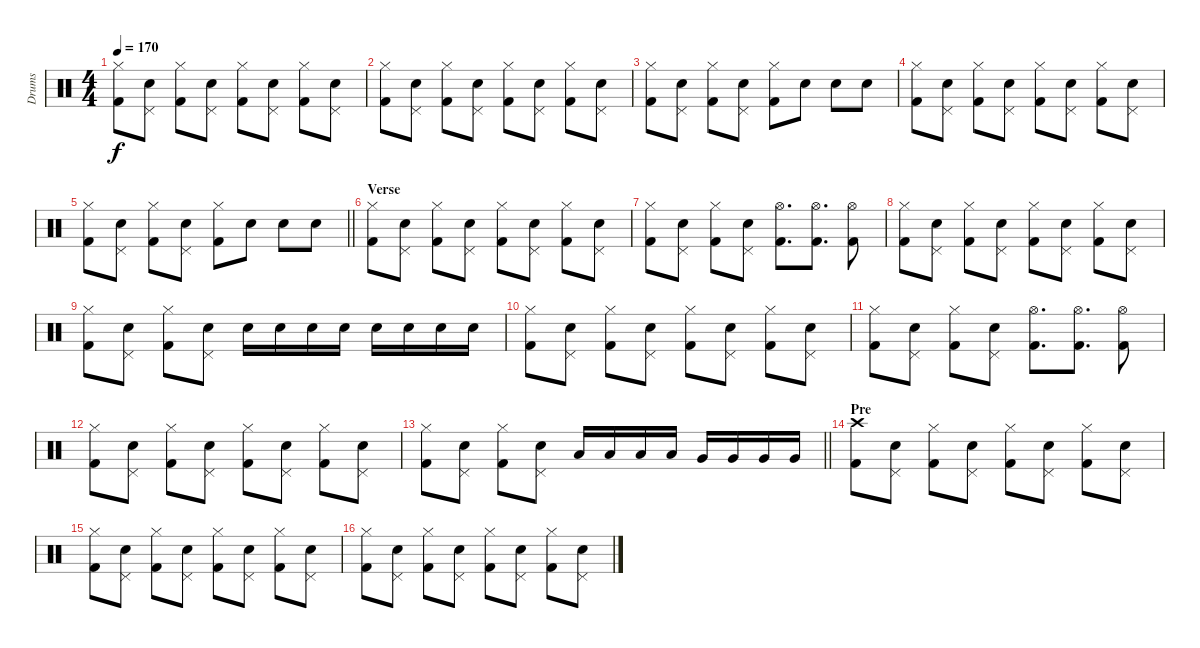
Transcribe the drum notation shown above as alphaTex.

\track ("Drums" "Drums") {instrument percussion}
\staff {score}
\articulation defaults
\ts (4 4)
\tempo 170
\clef neutral
\ks c
("Hi-Hat (closed)" "Kick (hit) 2").8{dy f} ("Pedal Hi-Hat (hit)" "Electric Snare (hit)").8 ("Hi-Hat (closed)" "Kick (hit) 2").8 ("Pedal Hi-Hat (hit)" "Electric Snare (hit)").8 ("Hi-Hat (closed)" "Kick (hit) 2").8 ("Pedal Hi-Hat (hit)" "Electric Snare (hit)").8 ("Hi-Hat (closed)" "Kick (hit) 2").8 ("Pedal Hi-Hat (hit)" "Electric Snare (hit)").8 |
("Hi-Hat (closed)" "Kick (hit) 2").8 ("Pedal Hi-Hat (hit)" "Electric Snare (hit)").8 ("Hi-Hat (closed)" "Kick (hit) 2").8 ("Pedal Hi-Hat (hit)" "Electric Snare (hit)").8 ("Hi-Hat (closed)" "Kick (hit) 2").8 ("Pedal Hi-Hat (hit)" "Electric Snare (hit)").8 ("Hi-Hat (closed)" "Kick (hit) 2").8 ("Pedal Hi-Hat (hit)" "Electric Snare (hit)").8 |
("Hi-Hat (closed)" "Kick (hit) 2").8 ("Pedal Hi-Hat (hit)" "Electric Snare (hit)").8 ("Hi-Hat (closed)" "Kick (hit) 2").8 ("Pedal Hi-Hat (hit)" "Electric Snare (hit)").8 ("Hi-Hat (closed)" "Kick (hit) 2").8 "Electric Snare (hit)".8 "Electric Snare (hit)".8 "Electric Snare (hit)".8 |
("Hi-Hat (closed)" "Kick (hit) 2").8 ("Pedal Hi-Hat (hit)" "Electric Snare (hit)").8 ("Hi-Hat (closed)" "Kick (hit) 2").8 ("Pedal Hi-Hat (hit)" "Electric Snare (hit)").8 ("Hi-Hat (closed)" "Kick (hit) 2").8 ("Pedal Hi-Hat (hit)" "Electric Snare (hit)").8 ("Hi-Hat (closed)" "Kick (hit) 2").8 ("Pedal Hi-Hat (hit)" "Electric Snare (hit)").8 |
\barLineRight lightlight
("Hi-Hat (closed)" "Kick (hit) 2").8 ("Pedal Hi-Hat (hit)" "Electric Snare (hit)").8 ("Hi-Hat (closed)" "Kick (hit) 2").8 ("Pedal Hi-Hat (hit)" "Electric Snare (hit)").8 ("Hi-Hat (closed)" "Kick (hit) 2").8 "Electric Snare (hit)".8 "Electric Snare (hit)".8 "Electric Snare (hit)".8 |
\section ("" "Verse")
("Hi-Hat (closed)" "Kick (hit) 2").8 ("Pedal Hi-Hat (hit)" "Electric Snare (hit)").8 ("Hi-Hat (closed)" "Kick (hit) 2").8 ("Pedal Hi-Hat (hit)" "Electric Snare (hit)").8 ("Hi-Hat (closed)" "Kick (hit) 2").8 ("Pedal Hi-Hat (hit)" "Electric Snare (hit)").8 ("Hi-Hat (closed)" "Kick (hit) 2").8 ("Pedal Hi-Hat (hit)" "Electric Snare (hit)").8 |
("Hi-Hat (closed)" "Kick (hit) 2").8 ("Pedal Hi-Hat (hit)" "Electric Snare (hit)").8 ("Hi-Hat (closed)" "Kick (hit) 2").8 ("Pedal Hi-Hat (hit)" "Electric Snare (hit)").8 ("Hi-Hat (open)" "Kick (hit) 2").8{d} ("Hi-Hat (open)" "Kick (hit) 2").8{d} ("Hi-Hat (open)" "Kick (hit) 2").8 |
("Hi-Hat (closed)" "Kick (hit) 2").8 ("Pedal Hi-Hat (hit)" "Electric Snare (hit)").8 ("Hi-Hat (closed)" "Kick (hit) 2").8 ("Pedal Hi-Hat (hit)" "Electric Snare (hit)").8 ("Hi-Hat (closed)" "Kick (hit) 2").8 ("Pedal Hi-Hat (hit)" "Electric Snare (hit)").8 ("Hi-Hat (closed)" "Kick (hit) 2").8 ("Pedal Hi-Hat (hit)" "Electric Snare (hit)").8 |
("Hi-Hat (closed)" "Kick (hit) 2").8 ("Pedal Hi-Hat (hit)" "Electric Snare (hit)").8 ("Hi-Hat (closed)" "Kick (hit) 2").8 ("Pedal Hi-Hat (hit)" "Electric Snare (hit)").8 "Electric Snare (hit)".16 "Electric Snare (hit)".16 "Electric Snare (hit)".16 "Electric Snare (hit)".16 "Electric Snare (hit)".16 "Electric Snare (hit)".16 "Electric Snare (hit)".16 "Electric Snare (hit)".16 |
("Hi-Hat (closed)" "Kick (hit) 2").8 ("Pedal Hi-Hat (hit)" "Electric Snare (hit)").8 ("Hi-Hat (closed)" "Kick (hit) 2").8 ("Pedal Hi-Hat (hit)" "Electric Snare (hit)").8 ("Hi-Hat (closed)" "Kick (hit) 2").8 ("Pedal Hi-Hat (hit)" "Electric Snare (hit)").8 ("Hi-Hat (closed)" "Kick (hit) 2").8 ("Pedal Hi-Hat (hit)" "Electric Snare (hit)").8 |
("Hi-Hat (closed)" "Kick (hit) 2").8 ("Pedal Hi-Hat (hit)" "Electric Snare (hit)").8 ("Hi-Hat (closed)" "Kick (hit) 2").8 ("Pedal Hi-Hat (hit)" "Electric Snare (hit)").8 ("Hi-Hat (open)" "Kick (hit) 2").8{d} ("Hi-Hat (open)" "Kick (hit) 2").8{d} ("Hi-Hat (open)" "Kick (hit) 2").8 |
("Hi-Hat (closed)" "Kick (hit) 2").8 ("Pedal Hi-Hat (hit)" "Electric Snare (hit)").8 ("Hi-Hat (closed)" "Kick (hit) 2").8 ("Pedal Hi-Hat (hit)" "Electric Snare (hit)").8 ("Hi-Hat (closed)" "Kick (hit) 2").8 ("Pedal Hi-Hat (hit)" "Electric Snare (hit)").8 ("Hi-Hat (closed)" "Kick (hit) 2").8 ("Pedal Hi-Hat (hit)" "Electric Snare (hit)").8 |
\barLineRight lightlight
("Hi-Hat (closed)" "Kick (hit) 2").8 ("Pedal Hi-Hat (hit)" "Electric Snare (hit)").8 ("Hi-Hat (closed)" "Kick (hit) 2").8 ("Pedal Hi-Hat (hit)" "Electric Snare (hit)").8 "Low Tom (hit)".16 "Low Tom (hit)".16 "Low Tom (hit)".16 "Low Tom (hit)".16 "Very Low Tom (hit)".16 "Very Low Tom (hit)".16 "Very Low Tom (hit)".16 "Very Low Tom (hit)".16 |
\section ("" "Pre")
("Crash high (hit)" "Kick (hit) 2").8 ("Pedal Hi-Hat (hit)" "Electric Snare (hit)").8 ("Hi-Hat (closed)" "Kick (hit) 2").8 ("Pedal Hi-Hat (hit)" "Electric Snare (hit)").8 ("Hi-Hat (closed)" "Kick (hit) 2").8 ("Pedal Hi-Hat (hit)" "Electric Snare (hit)").8 ("Hi-Hat (closed)" "Kick (hit) 2").8 ("Pedal Hi-Hat (hit)" "Electric Snare (hit)").8 |
("Hi-Hat (closed)" "Kick (hit) 2").8 ("Pedal Hi-Hat (hit)" "Electric Snare (hit)").8 ("Hi-Hat (closed)" "Kick (hit) 2").8 ("Pedal Hi-Hat (hit)" "Electric Snare (hit)").8 ("Hi-Hat (closed)" "Kick (hit) 2").8 ("Pedal Hi-Hat (hit)" "Electric Snare (hit)").8 ("Hi-Hat (closed)" "Kick (hit) 2").8 ("Pedal Hi-Hat (hit)" "Electric Snare (hit)").8 |
("Hi-Hat (closed)" "Kick (hit) 2").8 ("Pedal Hi-Hat (hit)" "Electric Snare (hit)").8 ("Hi-Hat (closed)" "Kick (hit) 2").8 ("Pedal Hi-Hat (hit)" "Electric Snare (hit)").8 ("Hi-Hat (closed)" "Kick (hit) 2").8 ("Pedal Hi-Hat (hit)" "Electric Snare (hit)").8 ("Hi-Hat (closed)" "Kick (hit) 2").8 ("Pedal Hi-Hat (hit)" "Electric Snare (hit)").8
